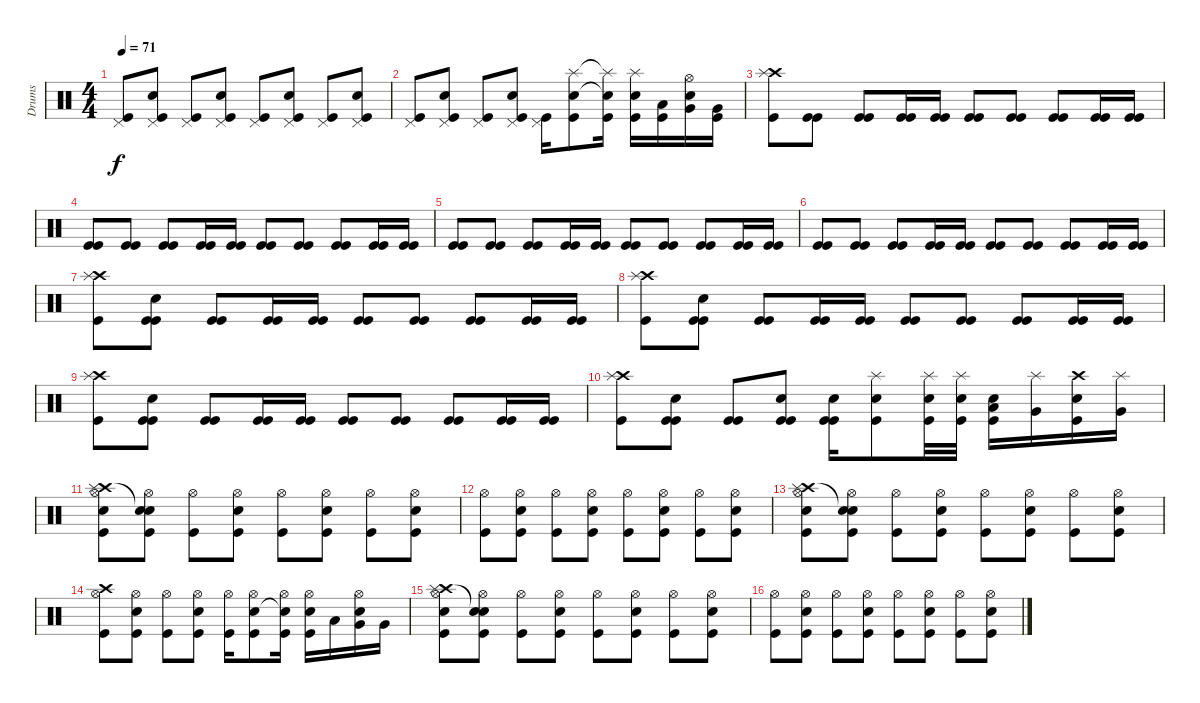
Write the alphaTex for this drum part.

\track ("Drums" "Drums") {instrument percussion}
\staff {score}
\articulation defaults
\ts (4 4)
\tempo 71
\clef neutral
\ks c
("Kick (hit)" "Pedal Hi-Hat (hit)").8{dy f} ("Snare (hit) 2" "Kick (hit)" "Pedal Hi-Hat (hit)").8 ("Kick (hit)" "Pedal Hi-Hat (hit)").8 ("Electric Snare (hit)" "Kick (hit)" "Pedal Hi-Hat (hit)").8 ("Kick (hit)" "Pedal Hi-Hat (hit)").8 ("Snare (hit) 2" "Kick (hit)" "Pedal Hi-Hat (hit)").8 ("Kick (hit)" "Pedal Hi-Hat (hit)").8 ("Electric Snare (hit)" "Kick (hit)" "Pedal Hi-Hat (hit)").8 |
("Pedal Hi-Hat (hit)" "Kick (hit)").8 ("Snare (hit) 2" "Pedal Hi-Hat (hit)" "Kick (hit)").8 ("Pedal Hi-Hat (hit)" "Kick (hit)").8 ("Electric Snare (hit)" "Pedal Hi-Hat (hit)" "Kick (hit)").8 ("Pedal Hi-Hat (hit)" "Kick (hit)").16 ("Snare (hit) 2" "Splash (hit)" "Kick (hit)").8 ("Snare (hit) 2"{t} "Splash (hit)"{t} "Kick (hit)").16 ("Electric Snare (hit)" "Splash (hit)" "Kick (hit)").16 ("Kick (hit)" "Low Floor Tom (hit)").16 ("Electric Snare (hit)" "Hi-Hat (open)" "Very Low Tom (hit)").16 ("Kick (hit)" "Very Low Tom (hit)").16 |
("Kick (hit)" "Crash high (hit)" "Splash (hit)").8 ("Kick (hit)" "Kick (hit)").8 ("Kick (hit)" "Kick (hit)").8 ("Kick (hit)" "Kick (hit)").16 ("Kick (hit)" "Kick (hit)").16 ("Kick (hit)" "Kick (hit)").8 ("Kick (hit)" "Kick (hit)").8 ("Kick (hit)" "Kick (hit)").8 ("Kick (hit)" "Kick (hit)").16 ("Kick (hit)" "Kick (hit)").16 |
("Kick (hit)" "Kick (hit)").8 ("Kick (hit)" "Kick (hit)").8 ("Kick (hit)" "Kick (hit)").8 ("Kick (hit)" "Kick (hit)").16 ("Kick (hit)" "Kick (hit)").16 ("Kick (hit)" "Kick (hit)").8 ("Kick (hit)" "Kick (hit)").8 ("Kick (hit)" "Kick (hit)").8 ("Kick (hit)" "Kick (hit)").16 ("Kick (hit)" "Kick (hit)").16 |
("Kick (hit)" "Kick (hit)").8 ("Kick (hit)" "Kick (hit)").8 ("Kick (hit)" "Kick (hit)").8 ("Kick (hit)" "Kick (hit)").16 ("Kick (hit)" "Kick (hit)").16 ("Kick (hit)" "Kick (hit)").8 ("Kick (hit)" "Kick (hit)").8 ("Kick (hit)" "Kick (hit)").8 ("Kick (hit)" "Kick (hit)").16 ("Kick (hit)" "Kick (hit)").16 |
("Kick (hit)" "Kick (hit)").8 ("Kick (hit)" "Kick (hit)").8 ("Kick (hit)" "Kick (hit)").8 ("Kick (hit)" "Kick (hit)").16 ("Kick (hit)" "Kick (hit)").16 ("Kick (hit)" "Kick (hit)").8 ("Kick (hit)" "Kick (hit)").8 ("Kick (hit)" "Kick (hit)").8 ("Kick (hit)" "Kick (hit)").16 ("Kick (hit)" "Kick (hit)").16 |
("Kick (hit)" "Crash high (hit)" "Splash (hit)").8 ("Electric Snare (hit)" "Kick (hit)" "Kick (hit)").8 ("Kick (hit)" "Kick (hit)").8 ("Kick (hit)" "Kick (hit)").16 ("Kick (hit)" "Kick (hit)").16 ("Kick (hit)" "Kick (hit)").8 ("Kick (hit)" "Kick (hit)").8 ("Kick (hit)" "Kick (hit)").8 ("Kick (hit)" "Kick (hit)").16 ("Kick (hit)" "Kick (hit)").16 |
("Kick (hit)" "Crash high (hit)" "Splash (hit)").8 ("Electric Snare (hit)" "Kick (hit)" "Kick (hit)").8 ("Kick (hit)" "Kick (hit)").8 ("Kick (hit)" "Kick (hit)").16 ("Kick (hit)" "Kick (hit)").16 ("Kick (hit)" "Kick (hit)").8 ("Kick (hit)" "Kick (hit)").8 ("Kick (hit)" "Kick (hit)").8 ("Kick (hit)" "Kick (hit)").16 ("Kick (hit)" "Kick (hit)").16 |
("Kick (hit)" "Crash high (hit)" "Splash (hit)").8 ("Electric Snare (hit)" "Kick (hit)" "Kick (hit)").8 ("Kick (hit)" "Kick (hit)").8 ("Kick (hit)" "Kick (hit)").16 ("Kick (hit)" "Kick (hit)").16 ("Kick (hit)" "Kick (hit)").8 ("Kick (hit)" "Kick (hit)").8 ("Kick (hit)" "Kick (hit)").8 ("Kick (hit)" "Kick (hit)").16 ("Kick (hit)" "Kick (hit)").16 |
("Crash high (hit)" "Kick (hit)" "Splash (hit)").8 ("Electric Snare (hit)" "Kick (hit)" "Kick (hit)").8 ("Kick (hit)" "Kick (hit)").8 ("Electric Snare (hit)" "Kick (hit)" "Kick (hit)").8 ("Electric Snare (hit)" "Kick (hit)" "Kick (hit)").16 ("Electric Snare (hit)" "Splash (hit)" "Kick (hit)").8 ("Electric Snare (hit)" "Splash (hit)" "Kick (hit)").32 ("Electric Snare (hit)" "Splash (hit)" "Kick (hit)").32 ("Electric Snare (hit)" "Kick (hit)" "Low Floor Tom (hit)").16 ("Splash (hit)" "Very Low Tom (hit)").16 ("Electric Snare (hit)" "Kick (hit)" "Crash high (hit)").16 ("Splash (hit)" "Very Low Tom (hit)").16 |
("Snare (hit) 2" "Hi-Hat (open)" "Kick (hit)" "Crash high (hit)" "Splash (hit)").8 ("Snare (hit) 2" "Hi-Hat (open)" "Kick (hit)" "Snare (hit)"{t}).8 ("Hi-Hat (open)" "Kick (hit)").8 ("Electric Snare (hit)" "Hi-Hat (open)" "Kick (hit)").8 ("Hi-Hat (open)" "Kick (hit)").8 ("Snare (hit) 2" "Hi-Hat (open)" "Kick (hit)").8 ("Hi-Hat (open)" "Kick (hit)").8 ("Electric Snare (hit)" "Hi-Hat (open)" "Kick (hit)").8 |
("Hi-Hat (open)" "Kick (hit)").8 ("Snare (hit) 2" "Hi-Hat (open)" "Kick (hit)").8 ("Hi-Hat (open)" "Kick (hit)").8 ("Electric Snare (hit)" "Hi-Hat (open)" "Kick (hit)").8 ("Hi-Hat (open)" "Kick (hit)").8 ("Snare (hit) 2" "Hi-Hat (open)" "Kick (hit)").8 ("Hi-Hat (open)" "Kick (hit)").8 ("Electric Snare (hit)" "Hi-Hat (open)" "Kick (hit)").8 |
("Snare (hit) 2" "Hi-Hat (open)" "Kick (hit)" "Crash high (hit)" "Splash (hit)").8 ("Snare (hit) 2" "Hi-Hat (open)" "Kick (hit)" "Snare (hit)"{t}).8 ("Hi-Hat (open)" "Kick (hit)").8 ("Electric Snare (hit)" "Hi-Hat (open)" "Kick (hit)").8 ("Hi-Hat (open)" "Kick (hit)").8 ("Snare (hit) 2" "Hi-Hat (open)" "Kick (hit)").8 ("Hi-Hat (open)" "Kick (hit)").8 ("Electric Snare (hit)" "Hi-Hat (open)" "Kick (hit)").8 |
("Hi-Hat (open)" "Kick (hit)" "Crash high (hit)").8 ("Snare (hit) 2" "Hi-Hat (open)" "Kick (hit)").8 ("Hi-Hat (open)" "Kick (hit)").8 ("Electric Snare (hit)" "Hi-Hat (open)" "Kick (hit)").8 ("Hi-Hat (open)" "Kick (hit)").16 ("Snare (hit) 2" "Hi-Hat (open)" "Kick (hit)").8 ("Snare (hit) 2"{t} "Hi-Hat (open)" "Kick (hit)").16 ("Electric Snare (hit)" "Hi-Hat (open)" "Kick (hit)").16 "Low Floor Tom (hit)".16 ("Electric Snare (hit)" "Hi-Hat (open)" "Very Low Tom (hit)").16 "Very Low Tom (hit)".16 |
("Snare (hit) 2" "Hi-Hat (open)" "Kick (hit)" "Crash high (hit)" "Splash (hit)").8 ("Snare (hit) 2" "Hi-Hat (open)" "Kick (hit)" "Snare (hit)"{t}).8 ("Hi-Hat (open)" "Kick (hit)").8 ("Electric Snare (hit)" "Hi-Hat (open)" "Kick (hit)").8 ("Hi-Hat (open)" "Kick (hit)").8 ("Snare (hit) 2" "Hi-Hat (open)" "Kick (hit)").8 ("Hi-Hat (open)" "Kick (hit)").8 ("Electric Snare (hit)" "Hi-Hat (open)" "Kick (hit)").8 |
("Hi-Hat (open)" "Kick (hit)").8 ("Snare (hit) 2" "Hi-Hat (open)" "Kick (hit)").8 ("Hi-Hat (open)" "Kick (hit)").8 ("Electric Snare (hit)" "Hi-Hat (open)" "Kick (hit)").8 ("Hi-Hat (open)" "Kick (hit)").8 ("Snare (hit) 2" "Hi-Hat (open)" "Kick (hit)").8 ("Hi-Hat (open)" "Kick (hit)").8 ("Electric Snare (hit)" "Hi-Hat (open)" "Kick (hit)").8
